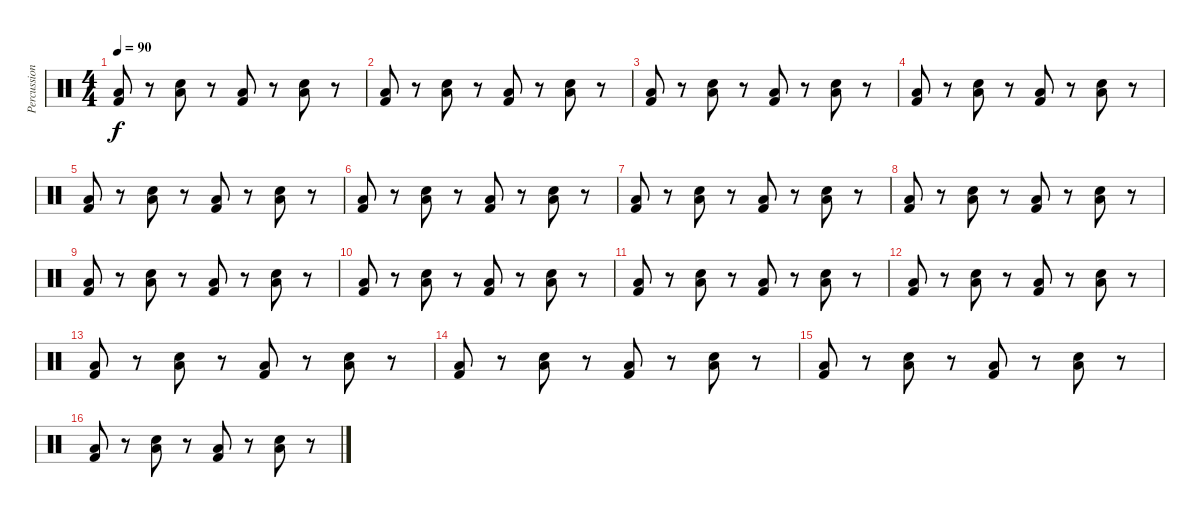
\track ("Percussion" "Percussion") {instrument percussion}
\staff {score}
\articulation defaults
\ts (4 4)
\tempo 90
\clef neutral
\ks c
("Low Floor Tom (hit)" "Kick (hit) 2").8{dy f} r.8 ("Low Floor Tom (hit)" "Snare (hit) 2").8 r.8 ("Low Floor Tom (hit)" "Kick (hit) 2").8 r.8 ("Low Floor Tom (hit)" "Snare (hit) 2").8 r.8 |
("Low Floor Tom (hit)" "Kick (hit) 2").8 r.8 ("Low Floor Tom (hit)" "Snare (hit) 2").8 r.8 ("Low Floor Tom (hit)" "Kick (hit) 2").8 r.8 ("Low Floor Tom (hit)" "Snare (hit) 2").8 r.8 |
("Low Floor Tom (hit)" "Kick (hit) 2").8 r.8 ("Low Floor Tom (hit)" "Snare (hit) 2").8 r.8 ("Low Floor Tom (hit)" "Kick (hit) 2").8 r.8 ("Low Floor Tom (hit)" "Snare (hit) 2").8 r.8 |
("Low Floor Tom (hit)" "Kick (hit) 2").8 r.8 ("Low Floor Tom (hit)" "Snare (hit) 2").8 r.8 ("Low Floor Tom (hit)" "Kick (hit) 2").8 r.8 ("Low Floor Tom (hit)" "Snare (hit) 2").8 r.8 |
("Low Floor Tom (hit)" "Kick (hit) 2").8 r.8 ("Low Floor Tom (hit)" "Snare (hit) 2").8 r.8 ("Low Floor Tom (hit)" "Kick (hit) 2").8 r.8 ("Low Floor Tom (hit)" "Snare (hit) 2").8 r.8 |
("Low Floor Tom (hit)" "Kick (hit) 2").8 r.8 ("Low Floor Tom (hit)" "Snare (hit) 2").8 r.8 ("Low Floor Tom (hit)" "Kick (hit) 2").8 r.8 ("Low Floor Tom (hit)" "Snare (hit) 2").8 r.8 |
("Low Floor Tom (hit)" "Kick (hit) 2").8 r.8 ("Low Floor Tom (hit)" "Snare (hit) 2").8 r.8 ("Low Floor Tom (hit)" "Kick (hit) 2").8 r.8 ("Low Floor Tom (hit)" "Snare (hit) 2").8 r.8 |
("Low Floor Tom (hit)" "Kick (hit) 2").8 r.8 ("Low Floor Tom (hit)" "Snare (hit) 2").8 r.8 ("Low Floor Tom (hit)" "Kick (hit) 2").8 r.8 ("Low Floor Tom (hit)" "Snare (hit) 2").8 r.8 |
("Low Floor Tom (hit)" "Kick (hit) 2").8 r.8 ("Low Floor Tom (hit)" "Snare (hit) 2").8 r.8 ("Low Floor Tom (hit)" "Kick (hit) 2").8 r.8 ("Low Floor Tom (hit)" "Snare (hit) 2").8 r.8 |
("Low Floor Tom (hit)" "Kick (hit) 2").8 r.8 ("Low Floor Tom (hit)" "Snare (hit) 2").8 r.8 ("Low Floor Tom (hit)" "Kick (hit) 2").8 r.8 ("Low Floor Tom (hit)" "Snare (hit) 2").8 r.8 |
("Low Floor Tom (hit)" "Kick (hit) 2").8 r.8 ("Low Floor Tom (hit)" "Snare (hit) 2").8 r.8 ("Low Floor Tom (hit)" "Kick (hit) 2").8 r.8 ("Low Floor Tom (hit)" "Snare (hit) 2").8 r.8 |
("Low Floor Tom (hit)" "Kick (hit) 2").8 r.8 ("Low Floor Tom (hit)" "Snare (hit) 2").8 r.8 ("Low Floor Tom (hit)" "Kick (hit) 2").8 r.8 ("Low Floor Tom (hit)" "Snare (hit) 2").8 r.8 |
("Low Floor Tom (hit)" "Kick (hit) 2").8 r.8 ("Low Floor Tom (hit)" "Snare (hit) 2").8 r.8 ("Low Floor Tom (hit)" "Kick (hit) 2").8 r.8 ("Low Floor Tom (hit)" "Snare (hit) 2").8 r.8 |
("Low Floor Tom (hit)" "Kick (hit) 2").8 r.8 ("Low Floor Tom (hit)" "Snare (hit) 2").8 r.8 ("Low Floor Tom (hit)" "Kick (hit) 2").8 r.8 ("Low Floor Tom (hit)" "Snare (hit) 2").8 r.8 |
("Low Floor Tom (hit)" "Kick (hit) 2").8 r.8 ("Low Floor Tom (hit)" "Snare (hit) 2").8 r.8 ("Low Floor Tom (hit)" "Kick (hit) 2").8 r.8 ("Low Floor Tom (hit)" "Snare (hit) 2").8 r.8 |
("Low Floor Tom (hit)" "Kick (hit) 2").8 r.8 ("Low Floor Tom (hit)" "Snare (hit) 2").8 r.8 ("Low Floor Tom (hit)" "Kick (hit) 2").8 r.8 ("Low Floor Tom (hit)" "Snare (hit) 2").8 r.8
